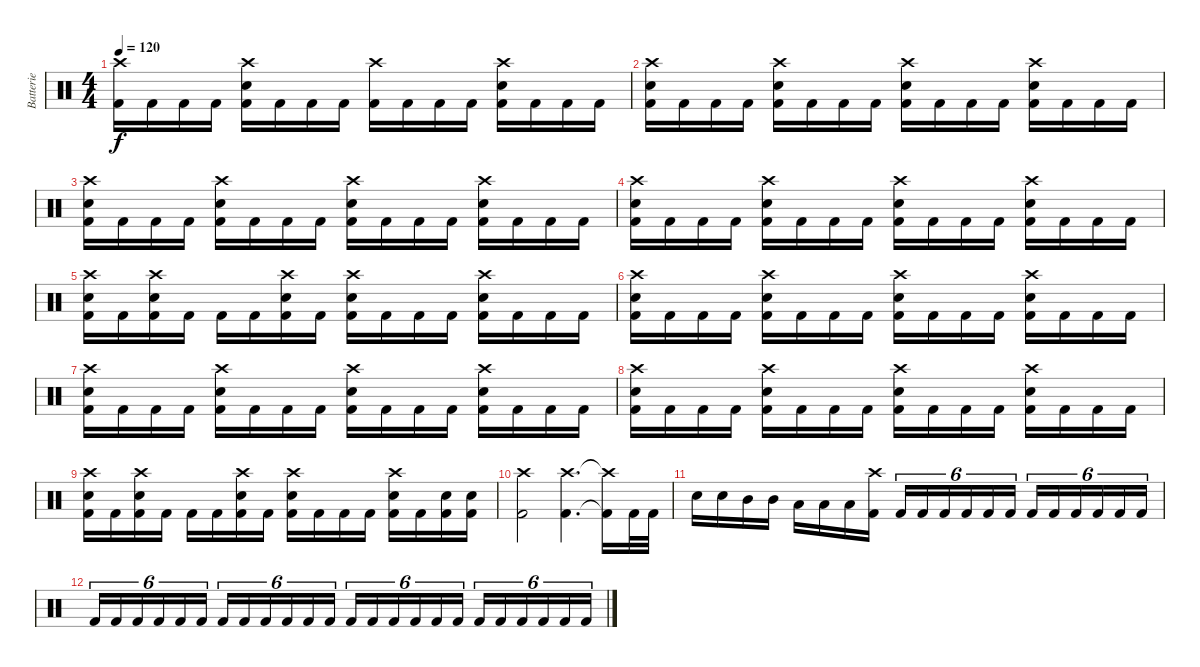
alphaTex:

\track ("Batterie" "Batterie") {instrument percussion}
\staff {score}
\articulation defaults
\ts (4 4)
\tempo 120
\clef neutral
\ks c
("Crash high (hit)" "Kick (hit) 2").16{dy f} "Kick (hit) 2".16 "Kick (hit) 2".16 "Kick (hit) 2".16 ("Crash high (hit)" "Electric Snare (hit)" "Kick (hit) 2").16 "Kick (hit) 2".16 "Kick (hit) 2".16 "Kick (hit) 2".16 ("Crash high (hit)" "Kick (hit) 2").16 "Kick (hit) 2".16 "Kick (hit) 2".16 "Kick (hit) 2".16 ("Crash high (hit)" "Electric Snare (hit)" "Kick (hit) 2").16 "Kick (hit) 2".16 "Kick (hit) 2".16 "Kick (hit) 2".16 |
("Crash high (hit)" "Electric Snare (hit)" "Kick (hit) 2").16 "Kick (hit) 2".16 "Kick (hit) 2".16 "Kick (hit) 2".16 ("Crash high (hit)" "Electric Snare (hit)" "Kick (hit) 2").16 "Kick (hit) 2".16 "Kick (hit) 2".16 "Kick (hit) 2".16 ("Crash high (hit)" "Electric Snare (hit)" "Kick (hit) 2").16 "Kick (hit) 2".16 "Kick (hit) 2".16 "Kick (hit) 2".16 ("Crash high (hit)" "Electric Snare (hit)" "Kick (hit) 2").16 "Kick (hit) 2".16 "Kick (hit) 2".16 "Kick (hit) 2".16 |
("Crash high (hit)" "Electric Snare (hit)" "Kick (hit) 2").16 "Kick (hit) 2".16 "Kick (hit) 2".16 "Kick (hit) 2".16 ("Crash high (hit)" "Electric Snare (hit)" "Kick (hit) 2").16 "Kick (hit) 2".16 "Kick (hit) 2".16 "Kick (hit) 2".16 ("Crash high (hit)" "Electric Snare (hit)" "Kick (hit) 2").16 "Kick (hit) 2".16 "Kick (hit) 2".16 "Kick (hit) 2".16 ("Crash high (hit)" "Electric Snare (hit)" "Kick (hit) 2").16 "Kick (hit) 2".16 "Kick (hit) 2".16 "Kick (hit) 2".16 |
("Crash high (hit)" "Electric Snare (hit)" "Kick (hit) 2").16 "Kick (hit) 2".16 "Kick (hit) 2".16 "Kick (hit) 2".16 ("Crash high (hit)" "Electric Snare (hit)" "Kick (hit) 2").16 "Kick (hit) 2".16 "Kick (hit) 2".16 "Kick (hit) 2".16 ("Crash high (hit)" "Electric Snare (hit)" "Kick (hit) 2").16 "Kick (hit) 2".16 "Kick (hit) 2".16 "Kick (hit) 2".16 ("Crash high (hit)" "Electric Snare (hit)" "Kick (hit) 2").16 "Kick (hit) 2".16 "Kick (hit) 2".16 "Kick (hit) 2".16 |
("Crash high (hit)" "Electric Snare (hit)" "Kick (hit) 2").16 "Kick (hit) 2".16 ("Crash high (hit)" "Electric Snare (hit)" "Kick (hit) 2").16 "Kick (hit) 2".16 "Kick (hit) 2".16 "Kick (hit) 2".16 ("Crash high (hit)" "Electric Snare (hit)" "Kick (hit) 2").16 "Kick (hit) 2".16 ("Crash high (hit)" "Electric Snare (hit)" "Kick (hit) 2").16 "Kick (hit) 2".16 "Kick (hit) 2".16 "Kick (hit) 2".16 ("Crash high (hit)" "Electric Snare (hit)" "Kick (hit) 2").16 "Kick (hit) 2".16 "Kick (hit) 2".16 "Kick (hit) 2".16 |
("Crash high (hit)" "Electric Snare (hit)" "Kick (hit) 2").16 "Kick (hit) 2".16 "Kick (hit) 2".16 "Kick (hit) 2".16 ("Crash high (hit)" "Electric Snare (hit)" "Kick (hit) 2").16 "Kick (hit) 2".16 "Kick (hit) 2".16 "Kick (hit) 2".16 ("Crash high (hit)" "Electric Snare (hit)" "Kick (hit) 2").16 "Kick (hit) 2".16 "Kick (hit) 2".16 "Kick (hit) 2".16 ("Crash high (hit)" "Electric Snare (hit)" "Kick (hit) 2").16 "Kick (hit) 2".16 "Kick (hit) 2".16 "Kick (hit) 2".16 |
("Crash high (hit)" "Electric Snare (hit)" "Kick (hit) 2").16 "Kick (hit) 2".16 "Kick (hit) 2".16 "Kick (hit) 2".16 ("Crash high (hit)" "Electric Snare (hit)" "Kick (hit) 2").16 "Kick (hit) 2".16 "Kick (hit) 2".16 "Kick (hit) 2".16 ("Crash high (hit)" "Electric Snare (hit)" "Kick (hit) 2").16 "Kick (hit) 2".16 "Kick (hit) 2".16 "Kick (hit) 2".16 ("Crash high (hit)" "Electric Snare (hit)" "Kick (hit) 2").16 "Kick (hit) 2".16 "Kick (hit) 2".16 "Kick (hit) 2".16 |
("Crash high (hit)" "Electric Snare (hit)" "Kick (hit) 2").16 "Kick (hit) 2".16 "Kick (hit) 2".16 "Kick (hit) 2".16 ("Crash high (hit)" "Electric Snare (hit)" "Kick (hit) 2").16 "Kick (hit) 2".16 "Kick (hit) 2".16 "Kick (hit) 2".16 ("Crash high (hit)" "Electric Snare (hit)" "Kick (hit) 2").16 "Kick (hit) 2".16 "Kick (hit) 2".16 "Kick (hit) 2".16 ("Crash high (hit)" "Electric Snare (hit)" "Kick (hit) 2").16 "Kick (hit) 2".16 "Kick (hit) 2".16 "Kick (hit) 2".16 |
("Crash high (hit)" "Electric Snare (hit)" "Kick (hit) 2").16 "Kick (hit) 2".16 ("Crash high (hit)" "Electric Snare (hit)" "Kick (hit) 2").16 "Kick (hit) 2".16 "Kick (hit) 2".16 "Kick (hit) 2".16 ("Crash high (hit)" "Electric Snare (hit)" "Kick (hit) 2").16 "Kick (hit) 2".16 ("Crash high (hit)" "Electric Snare (hit)" "Kick (hit) 2").16 "Kick (hit) 2".16 "Kick (hit) 2".16 "Kick (hit) 2".16 ("Crash high (hit)" "Electric Snare (hit)" "Kick (hit) 2").16 "Kick (hit) 2".16 ("Electric Snare (hit)" "Kick (hit) 2").16 ("Electric Snare (hit)" "Kick (hit) 2").16 |
("Crash high (hit)" "Kick (hit) 2").2 ("Crash high (hit)" "Kick (hit) 2").4{d} ("Crash high (hit)"{t} "Kick (hit) 2"{t}).16 "Kick (hit) 2".32 "Kick (hit) 2".32 |
"Electric Snare (hit)".16 "Electric Snare (hit)".16 "Mid Tom (hit)".16 "Mid Tom (hit)".16 "Low Tom (hit)".16 "Low Tom (hit)".16 "Low Floor Tom (hit)".16 ("Crash high (hit)" "Kick (hit) 2").16 "Kick (hit) 2".16{tu (6 4)} "Kick (hit) 2".16{tu (6 4)} "Kick (hit) 2".16{tu (6 4)} "Kick (hit) 2".16{tu (6 4)} "Kick (hit) 2".16{tu (6 4)} "Kick (hit) 2".16{tu (6 4)} "Kick (hit) 2".16{tu (6 4)} "Kick (hit) 2".16{tu (6 4)} "Kick (hit) 2".16{tu (6 4)} "Kick (hit) 2".16{tu (6 4)} "Kick (hit) 2".16{tu (6 4)} "Kick (hit) 2".16{tu (6 4)} |
"Kick (hit) 2".16{tu (6 4)} "Kick (hit) 2".16{tu (6 4)} "Kick (hit) 2".16{tu (6 4)} "Kick (hit) 2".16{tu (6 4)} "Kick (hit) 2".16{tu (6 4)} "Kick (hit) 2".16{tu (6 4)} "Kick (hit) 2".16{tu (6 4)} "Kick (hit) 2".16{tu (6 4)} "Kick (hit) 2".16{tu (6 4)} "Kick (hit) 2".16{tu (6 4)} "Kick (hit) 2".16{tu (6 4)} "Kick (hit) 2".16{tu (6 4)} "Kick (hit) 2".16{tu (6 4)} "Kick (hit) 2".16{tu (6 4)} "Kick (hit) 2".16{tu (6 4)} "Kick (hit) 2".16{tu (6 4)} "Kick (hit) 2".16{tu (6 4)} "Kick (hit) 2".16{tu (6 4)} "Kick (hit) 2".16{tu (6 4)} "Kick (hit) 2".16{tu (6 4)} "Kick (hit) 2".16{tu (6 4)} "Kick (hit) 2".16{tu (6 4)} "Kick (hit) 2".16{tu (6 4)} "Kick (hit) 2".16{tu (6 4)}
